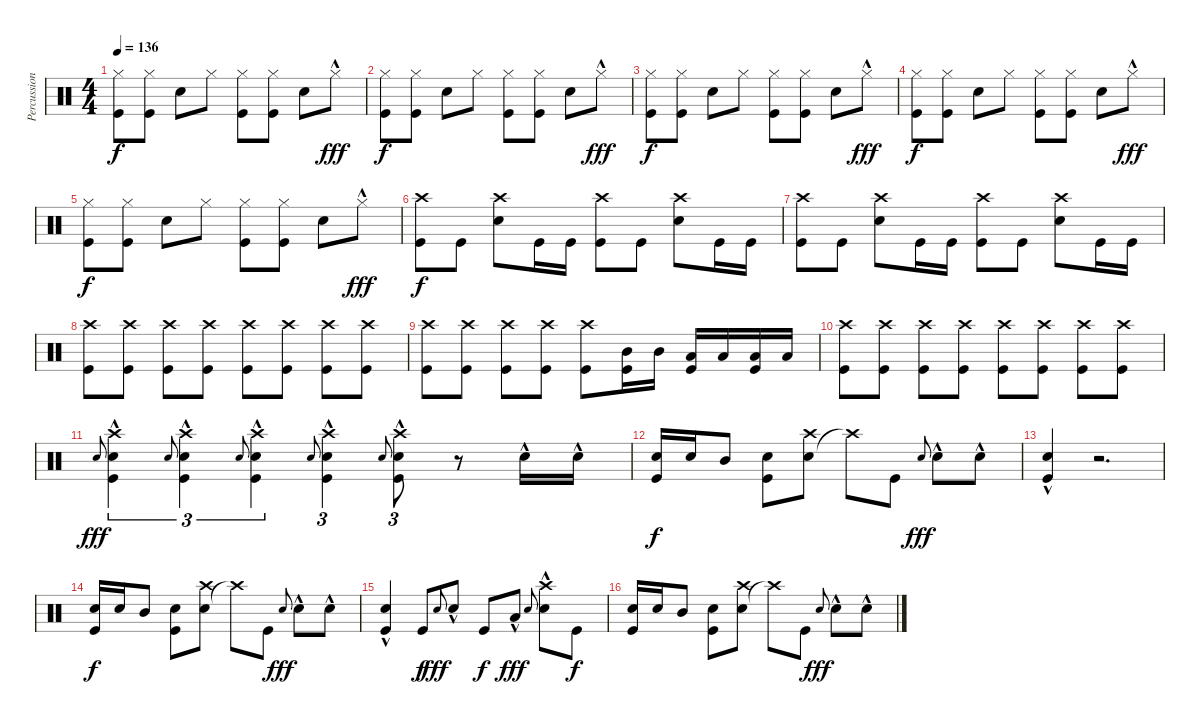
\track ("Percussions" "Percussion") {instrument percussion}
\staff {score}
\articulation defaults
\ts (4 4)
\tempo 136
\clef neutral
\ks c
("Kick (hit)" "Hi-Hat (closed)").8{dy f} ("Kick (hit)" "Hi-Hat (closed)").8 "Snare (hit) 2".8 "Hi-Hat (closed)".8 ("Kick (hit)" "Hi-Hat (closed)").8 ("Kick (hit)" "Hi-Hat (closed)").8 "Snare (hit) 2".8 "Hi-Hat (closed)"{hac}.8{dy fff} |
("Kick (hit)" "Hi-Hat (closed)").8{dy f} ("Kick (hit)" "Hi-Hat (closed)").8 "Snare (hit) 2".8 "Hi-Hat (closed)".8 ("Kick (hit)" "Hi-Hat (closed)").8 ("Kick (hit)" "Hi-Hat (closed)").8 "Snare (hit) 2".8 "Hi-Hat (closed)"{hac}.8{dy fff} |
("Kick (hit)" "Hi-Hat (closed)").8{dy f} ("Kick (hit)" "Hi-Hat (closed)").8 "Snare (hit) 2".8 "Hi-Hat (closed)".8 ("Kick (hit)" "Hi-Hat (closed)").8 ("Kick (hit)" "Hi-Hat (closed)").8 "Snare (hit) 2".8 "Hi-Hat (closed)"{hac}.8{dy fff} |
("Kick (hit)" "Hi-Hat (closed)").8{dy f} ("Kick (hit)" "Hi-Hat (closed)").8 "Snare (hit) 2".8 "Hi-Hat (closed)".8 ("Kick (hit)" "Hi-Hat (closed)").8 ("Kick (hit)" "Hi-Hat (closed)").8 "Snare (hit) 2".8 "Hi-Hat (closed)"{hac}.8{dy fff} |
("Kick (hit)" "Hi-Hat (closed)").8{dy f} ("Kick (hit)" "Hi-Hat (closed)").8 "Snare (hit) 2".8 "Hi-Hat (closed)".8 ("Kick (hit)" "Hi-Hat (closed)").8 ("Kick (hit)" "Hi-Hat (closed)").8 "Snare (hit) 2".8 "Hi-Hat (closed)"{hac}.8{dy fff} |
("Crash high (hit)" "Kick (hit)").8{dy f} "Kick (hit)".8 ("Snare (hit) 2" "Crash high (hit)").8 "Kick (hit)".16 "Kick (hit)".16 ("Crash high (hit)" "Kick (hit)").8 "Kick (hit)".8 ("Snare (hit) 2" "Crash high (hit)").8 "Kick (hit)".16 "Kick (hit)".16 |
("Crash high (hit)" "Kick (hit)").8 "Kick (hit)".8 ("Snare (hit) 2" "Crash high (hit)").8 "Kick (hit)".16 "Kick (hit)".16 ("Crash high (hit)" "Kick (hit)").8 "Kick (hit)".8 ("Snare (hit) 2" "Crash high (hit)").8 "Kick (hit)".16 "Kick (hit)".16 |
("Kick (hit)" "Crash high (hit)").8 ("Kick (hit)" "Crash high (hit)").8 ("Kick (hit)" "Crash high (hit)").8 ("Kick (hit)" "Crash high (hit)").8 ("Kick (hit)" "Crash high (hit)").8 ("Kick (hit)" "Crash high (hit)").8 ("Kick (hit)" "Crash high (hit)").8 ("Kick (hit)" "Crash high (hit)").8 |
("Kick (hit)" "Crash high (hit)").8 ("Kick (hit)" "Crash high (hit)").8 ("Kick (hit)" "Crash high (hit)").8 ("Kick (hit)" "Crash high (hit)").8 ("Kick (hit)" "Crash high (hit)").8 ("Kick (hit)" "Mid Tom (hit)").16 "Mid Tom (hit)".16 ("Kick (hit)" "Low Tom (hit)").16 "Low Tom (hit)".16 ("Kick (hit)" "Low Tom (hit)").16 "Low Tom (hit)".16 |
("Kick (hit)" "Crash high (hit)").8 ("Kick (hit)" "Crash high (hit)").8 ("Kick (hit)" "Crash high (hit)").8 ("Kick (hit)" "Crash high (hit)").8 ("Kick (hit)" "Crash high (hit)").8 ("Kick (hit)" "Crash high (hit)").8 ("Kick (hit)" "Crash high (hit)").8 ("Kick (hit)" "Crash high (hit)").8 |
"Snare (hit) 2".8{gr onbeat dy fff} ("Kick (hit)" "Crash high (hit)" "Snare (hit) 2"{hac}).4{tu (3 2)} "Snare (hit) 2".8{gr onbeat} ("Kick (hit)" "Crash high (hit)" "Snare (hit) 2"{hac}).4{tu (3 2)} "Snare (hit) 2".8{gr onbeat} ("Kick (hit)" "Crash high (hit)" "Snare (hit) 2"{hac}).4{tu (3 2)} "Snare (hit) 2".8{gr onbeat} ("Kick (hit)" "Crash high (hit)" "Snare (hit) 2"{hac}).4{tu (3 2)} "Snare (hit) 2".8{gr onbeat} ("Kick (hit)" "Crash high (hit)" "Snare (hit) 2"{hac}).8{tu (3 2)} r.8 "Snare (hit) 2"{hac}.16 "Snare (hit) 2"{hac}.16 |
("Snare (hit) 2" "Kick (hit)").16{dy f} "Snare (hit) 2".16 "Mid Tom (hit)".8 ("Snare (hit) 2" "Kick (hit)").8 ("Snare (hit) 2" "Crash high (hit)").8 "Crash high (hit)"{t}.8 "Kick (hit)".8 "Snare (hit) 2".8{gr onbeat dy fff} "Snare (hit) 2"{hac}.8 "Snare (hit) 2"{hac}.8 |
("Snare (hit) 2"{hac} "Kick (hit)").4 r.2{d} |
("Snare (hit) 2" "Kick (hit)").16{dy f} "Snare (hit) 2".16 "Mid Tom (hit)".8 ("Snare (hit) 2" "Kick (hit)").8 ("Snare (hit) 2" "Crash high (hit)").8 "Crash high (hit)"{t}.8 "Kick (hit)".8 "Snare (hit) 2".8{gr onbeat dy fff} "Snare (hit) 2"{hac}.8 "Snare (hit) 2"{hac}.8 |
("Snare (hit) 2"{hac} "Kick (hit)").4 "Kick (hit)".8{dy f} "Snare (hit) 2".8{gr onbeat dy fff} "Snare (hit) 2"{hac}.8 "Kick (hit)".8{dy f} "Low Tom (hit)"{hac}.8{dy fff} "Snare (hit) 2".8{gr onbeat} ("Snare (hit) 2"{hac} "Crash high (hit)").8 "Kick (hit)".8{dy f} |
("Snare (hit) 2" "Kick (hit)").16 "Snare (hit) 2".16 "Mid Tom (hit)".8 ("Snare (hit) 2" "Kick (hit)").8 ("Snare (hit) 2" "Crash high (hit)").8 "Crash high (hit)"{t}.8 "Kick (hit)".8 "Snare (hit) 2".8{gr onbeat dy fff} "Snare (hit) 2"{hac}.8 "Snare (hit) 2"{hac}.8
